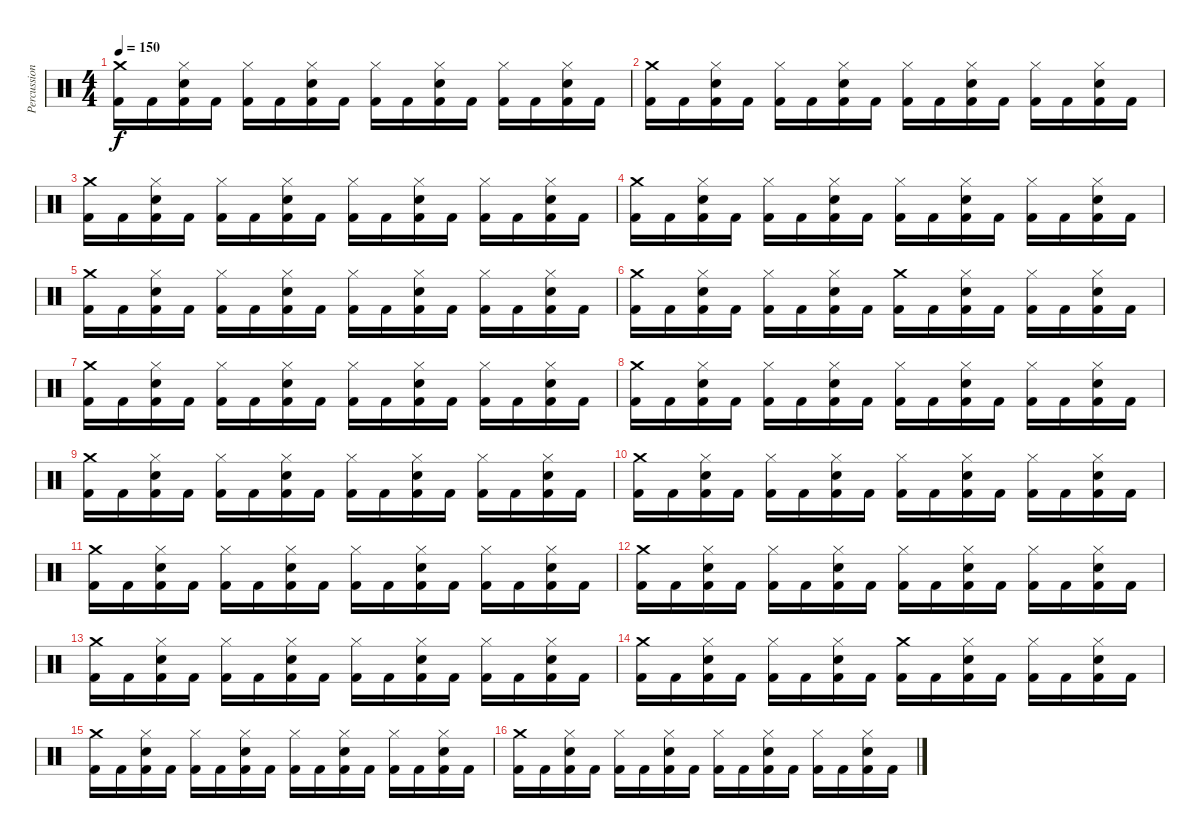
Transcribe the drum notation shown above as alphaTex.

\track ("Percussioni" "Percussion") {instrument percussion}
\staff {score}
\articulation defaults
\ts (4 4)
\tempo 150
\clef neutral
\ks c
("Crash medium (hit)" "Kick (hit) 2").16{dy f} "Kick (hit) 2".16 ("Hi-Hat (closed)" "Electric Snare (hit)" "Kick (hit) 2").16 "Kick (hit) 2".16 ("Hi-Hat (closed)" "Kick (hit) 2").16 "Kick (hit) 2".16 ("Hi-Hat (closed)" "Electric Snare (hit)" "Kick (hit) 2").16 "Kick (hit) 2".16 ("Hi-Hat (closed)" "Kick (hit) 2").16 "Kick (hit) 2".16 ("Hi-Hat (closed)" "Electric Snare (hit)" "Kick (hit) 2").16 "Kick (hit) 2".16 ("Hi-Hat (closed)" "Kick (hit) 2").16 "Kick (hit) 2".16 ("Hi-Hat (closed)" "Electric Snare (hit)" "Kick (hit) 2").16 "Kick (hit) 2".16 |
("Crash medium (hit)" "Kick (hit) 2").16 "Kick (hit) 2".16 ("Hi-Hat (closed)" "Electric Snare (hit)" "Kick (hit) 2").16 "Kick (hit) 2".16 ("Hi-Hat (closed)" "Kick (hit) 2").16 "Kick (hit) 2".16 ("Hi-Hat (closed)" "Electric Snare (hit)" "Kick (hit) 2").16 "Kick (hit) 2".16 ("Hi-Hat (closed)" "Kick (hit) 2").16 "Kick (hit) 2".16 ("Hi-Hat (closed)" "Electric Snare (hit)" "Kick (hit) 2").16 "Kick (hit) 2".16 ("Hi-Hat (closed)" "Kick (hit) 2").16 "Kick (hit) 2".16 ("Hi-Hat (closed)" "Electric Snare (hit)" "Kick (hit) 2").16 "Kick (hit) 2".16 |
("Crash medium (hit)" "Kick (hit) 2").16 "Kick (hit) 2".16 ("Hi-Hat (closed)" "Electric Snare (hit)" "Kick (hit) 2").16 "Kick (hit) 2".16 ("Hi-Hat (closed)" "Kick (hit) 2").16 "Kick (hit) 2".16 ("Hi-Hat (closed)" "Electric Snare (hit)" "Kick (hit) 2").16 "Kick (hit) 2".16 ("Hi-Hat (closed)" "Kick (hit) 2").16 "Kick (hit) 2".16 ("Hi-Hat (closed)" "Electric Snare (hit)" "Kick (hit) 2").16 "Kick (hit) 2".16 ("Hi-Hat (closed)" "Kick (hit) 2").16 "Kick (hit) 2".16 ("Hi-Hat (closed)" "Electric Snare (hit)" "Kick (hit) 2").16 "Kick (hit) 2".16 |
("Crash medium (hit)" "Kick (hit) 2").16 "Kick (hit) 2".16 ("Hi-Hat (closed)" "Electric Snare (hit)" "Kick (hit) 2").16 "Kick (hit) 2".16 ("Hi-Hat (closed)" "Kick (hit) 2").16 "Kick (hit) 2".16 ("Hi-Hat (closed)" "Electric Snare (hit)" "Kick (hit) 2").16 "Kick (hit) 2".16 ("Hi-Hat (closed)" "Kick (hit) 2").16 "Kick (hit) 2".16 ("Hi-Hat (closed)" "Electric Snare (hit)" "Kick (hit) 2").16 "Kick (hit) 2".16 ("Hi-Hat (closed)" "Kick (hit) 2").16 "Kick (hit) 2".16 ("Hi-Hat (closed)" "Electric Snare (hit)" "Kick (hit) 2").16 "Kick (hit) 2".16 |
("Crash medium (hit)" "Kick (hit) 2").16 "Kick (hit) 2".16 ("Hi-Hat (closed)" "Electric Snare (hit)" "Kick (hit) 2").16 "Kick (hit) 2".16 ("Hi-Hat (closed)" "Kick (hit) 2").16 "Kick (hit) 2".16 ("Hi-Hat (closed)" "Electric Snare (hit)" "Kick (hit) 2").16 "Kick (hit) 2".16 ("Hi-Hat (closed)" "Kick (hit) 2").16 "Kick (hit) 2".16 ("Hi-Hat (closed)" "Electric Snare (hit)" "Kick (hit) 2").16 "Kick (hit) 2".16 ("Hi-Hat (closed)" "Kick (hit) 2").16 "Kick (hit) 2".16 ("Hi-Hat (closed)" "Electric Snare (hit)" "Kick (hit) 2").16 "Kick (hit) 2".16 |
("Crash medium (hit)" "Kick (hit) 2").16 "Kick (hit) 2".16 ("Hi-Hat (closed)" "Electric Snare (hit)" "Kick (hit) 2").16 "Kick (hit) 2".16 ("Hi-Hat (closed)" "Kick (hit) 2").16 "Kick (hit) 2".16 ("Hi-Hat (closed)" "Electric Snare (hit)" "Kick (hit) 2").16 "Kick (hit) 2".16 ("Crash medium (hit)" "Kick (hit) 2").16 "Kick (hit) 2".16 ("Hi-Hat (closed)" "Electric Snare (hit)" "Kick (hit) 2").16 "Kick (hit) 2".16 ("Hi-Hat (closed)" "Kick (hit) 2").16 "Kick (hit) 2".16 ("Hi-Hat (closed)" "Electric Snare (hit)" "Kick (hit) 2").16 "Kick (hit) 2".16 |
("Crash medium (hit)" "Kick (hit) 2").16 "Kick (hit) 2".16 ("Hi-Hat (closed)" "Electric Snare (hit)" "Kick (hit) 2").16 "Kick (hit) 2".16 ("Hi-Hat (closed)" "Kick (hit) 2").16 "Kick (hit) 2".16 ("Hi-Hat (closed)" "Electric Snare (hit)" "Kick (hit) 2").16 "Kick (hit) 2".16 ("Hi-Hat (closed)" "Kick (hit) 2").16 "Kick (hit) 2".16 ("Hi-Hat (closed)" "Electric Snare (hit)" "Kick (hit) 2").16 "Kick (hit) 2".16 ("Hi-Hat (closed)" "Kick (hit) 2").16 "Kick (hit) 2".16 ("Hi-Hat (closed)" "Electric Snare (hit)" "Kick (hit) 2").16 "Kick (hit) 2".16 |
("Crash medium (hit)" "Kick (hit) 2").16 "Kick (hit) 2".16 ("Hi-Hat (closed)" "Electric Snare (hit)" "Kick (hit) 2").16 "Kick (hit) 2".16 ("Hi-Hat (closed)" "Kick (hit) 2").16 "Kick (hit) 2".16 ("Hi-Hat (closed)" "Electric Snare (hit)" "Kick (hit) 2").16 "Kick (hit) 2".16 ("Hi-Hat (closed)" "Kick (hit) 2").16 "Kick (hit) 2".16 ("Hi-Hat (closed)" "Electric Snare (hit)" "Kick (hit) 2").16 "Kick (hit) 2".16 ("Hi-Hat (closed)" "Kick (hit) 2").16 "Kick (hit) 2".16 ("Hi-Hat (closed)" "Electric Snare (hit)" "Kick (hit) 2").16 "Kick (hit) 2".16 |
("Crash medium (hit)" "Kick (hit) 2").16 "Kick (hit) 2".16 ("Hi-Hat (closed)" "Electric Snare (hit)" "Kick (hit) 2").16 "Kick (hit) 2".16 ("Hi-Hat (closed)" "Kick (hit) 2").16 "Kick (hit) 2".16 ("Hi-Hat (closed)" "Electric Snare (hit)" "Kick (hit) 2").16 "Kick (hit) 2".16 ("Hi-Hat (closed)" "Kick (hit) 2").16 "Kick (hit) 2".16 ("Hi-Hat (closed)" "Electric Snare (hit)" "Kick (hit) 2").16 "Kick (hit) 2".16 ("Hi-Hat (closed)" "Kick (hit) 2").16 "Kick (hit) 2".16 ("Hi-Hat (closed)" "Electric Snare (hit)" "Kick (hit) 2").16 "Kick (hit) 2".16 |
("Crash medium (hit)" "Kick (hit) 2").16 "Kick (hit) 2".16 ("Hi-Hat (closed)" "Electric Snare (hit)" "Kick (hit) 2").16 "Kick (hit) 2".16 ("Hi-Hat (closed)" "Kick (hit) 2").16 "Kick (hit) 2".16 ("Hi-Hat (closed)" "Electric Snare (hit)" "Kick (hit) 2").16 "Kick (hit) 2".16 ("Hi-Hat (closed)" "Kick (hit) 2").16 "Kick (hit) 2".16 ("Hi-Hat (closed)" "Electric Snare (hit)" "Kick (hit) 2").16 "Kick (hit) 2".16 ("Hi-Hat (closed)" "Kick (hit) 2").16 "Kick (hit) 2".16 ("Hi-Hat (closed)" "Electric Snare (hit)" "Kick (hit) 2").16 "Kick (hit) 2".16 |
("Crash medium (hit)" "Kick (hit) 2").16 "Kick (hit) 2".16 ("Hi-Hat (closed)" "Electric Snare (hit)" "Kick (hit) 2").16 "Kick (hit) 2".16 ("Hi-Hat (closed)" "Kick (hit) 2").16 "Kick (hit) 2".16 ("Hi-Hat (closed)" "Electric Snare (hit)" "Kick (hit) 2").16 "Kick (hit) 2".16 ("Hi-Hat (closed)" "Kick (hit) 2").16 "Kick (hit) 2".16 ("Hi-Hat (closed)" "Electric Snare (hit)" "Kick (hit) 2").16 "Kick (hit) 2".16 ("Hi-Hat (closed)" "Kick (hit) 2").16 "Kick (hit) 2".16 ("Hi-Hat (closed)" "Electric Snare (hit)" "Kick (hit) 2").16 "Kick (hit) 2".16 |
("Crash medium (hit)" "Kick (hit) 2").16 "Kick (hit) 2".16 ("Hi-Hat (closed)" "Electric Snare (hit)" "Kick (hit) 2").16 "Kick (hit) 2".16 ("Hi-Hat (closed)" "Kick (hit) 2").16 "Kick (hit) 2".16 ("Hi-Hat (closed)" "Electric Snare (hit)" "Kick (hit) 2").16 "Kick (hit) 2".16 ("Hi-Hat (closed)" "Kick (hit) 2").16 "Kick (hit) 2".16 ("Hi-Hat (closed)" "Electric Snare (hit)" "Kick (hit) 2").16 "Kick (hit) 2".16 ("Hi-Hat (closed)" "Kick (hit) 2").16 "Kick (hit) 2".16 ("Hi-Hat (closed)" "Electric Snare (hit)" "Kick (hit) 2").16 "Kick (hit) 2".16 |
("Crash medium (hit)" "Kick (hit) 2").16 "Kick (hit) 2".16 ("Hi-Hat (closed)" "Electric Snare (hit)" "Kick (hit) 2").16 "Kick (hit) 2".16 ("Hi-Hat (closed)" "Kick (hit) 2").16 "Kick (hit) 2".16 ("Hi-Hat (closed)" "Electric Snare (hit)" "Kick (hit) 2").16 "Kick (hit) 2".16 ("Hi-Hat (closed)" "Kick (hit) 2").16 "Kick (hit) 2".16 ("Hi-Hat (closed)" "Electric Snare (hit)" "Kick (hit) 2").16 "Kick (hit) 2".16 ("Hi-Hat (closed)" "Kick (hit) 2").16 "Kick (hit) 2".16 ("Hi-Hat (closed)" "Electric Snare (hit)" "Kick (hit) 2").16 "Kick (hit) 2".16 |
("Crash medium (hit)" "Kick (hit) 2").16 "Kick (hit) 2".16 ("Hi-Hat (closed)" "Electric Snare (hit)" "Kick (hit) 2").16 "Kick (hit) 2".16 ("Hi-Hat (closed)" "Kick (hit) 2").16 "Kick (hit) 2".16 ("Hi-Hat (closed)" "Electric Snare (hit)" "Kick (hit) 2").16 "Kick (hit) 2".16 ("Crash medium (hit)" "Kick (hit) 2").16 "Kick (hit) 2".16 ("Hi-Hat (closed)" "Electric Snare (hit)" "Kick (hit) 2").16 "Kick (hit) 2".16 ("Hi-Hat (closed)" "Kick (hit) 2").16 "Kick (hit) 2".16 ("Hi-Hat (closed)" "Electric Snare (hit)" "Kick (hit) 2").16 "Kick (hit) 2".16 |
("Crash medium (hit)" "Kick (hit) 2").16 "Kick (hit) 2".16 ("Hi-Hat (closed)" "Electric Snare (hit)" "Kick (hit) 2").16 "Kick (hit) 2".16 ("Hi-Hat (closed)" "Kick (hit) 2").16 "Kick (hit) 2".16 ("Hi-Hat (closed)" "Electric Snare (hit)" "Kick (hit) 2").16 "Kick (hit) 2".16 ("Hi-Hat (closed)" "Kick (hit) 2").16 "Kick (hit) 2".16 ("Hi-Hat (closed)" "Electric Snare (hit)" "Kick (hit) 2").16 "Kick (hit) 2".16 ("Hi-Hat (closed)" "Kick (hit) 2").16 "Kick (hit) 2".16 ("Hi-Hat (closed)" "Electric Snare (hit)" "Kick (hit) 2").16 "Kick (hit) 2".16 |
("Crash medium (hit)" "Kick (hit) 2").16 "Kick (hit) 2".16 ("Hi-Hat (closed)" "Electric Snare (hit)" "Kick (hit) 2").16 "Kick (hit) 2".16 ("Hi-Hat (closed)" "Kick (hit) 2").16 "Kick (hit) 2".16 ("Hi-Hat (closed)" "Electric Snare (hit)" "Kick (hit) 2").16 "Kick (hit) 2".16 ("Hi-Hat (closed)" "Kick (hit) 2").16 "Kick (hit) 2".16 ("Hi-Hat (closed)" "Electric Snare (hit)" "Kick (hit) 2").16 "Kick (hit) 2".16 ("Hi-Hat (closed)" "Kick (hit) 2").16 "Kick (hit) 2".16 ("Hi-Hat (closed)" "Electric Snare (hit)" "Kick (hit) 2").16 "Kick (hit) 2".16
